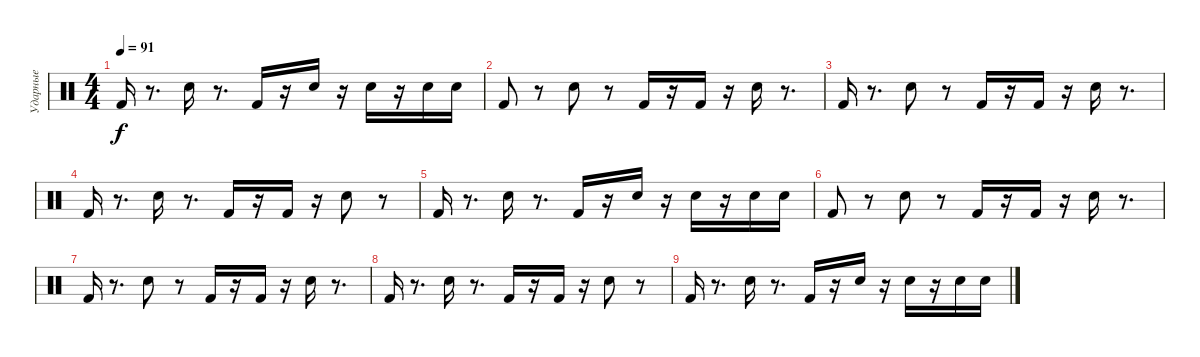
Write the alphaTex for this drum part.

\track ("Ударные" "Ударные") {instrument percussion}
\staff {score}
\articulation defaults
\ts (4 4)
\tempo 91
\clef neutral
\ks c "Kick (hit) 2".16{dy f}
r.8{d} "Electric Snare (hit)".16 r.8{d} "Kick (hit) 2".16 r.16 "Electric Snare (hit)".16 r.16 "Electric Snare (hit)".16 r.16 "Electric Snare (hit)".16 "Electric Snare (hit)".16 |
"Kick (hit) 2".8 r.8 "Electric Snare (hit)".8 r.8 "Kick (hit) 2".16 r.16 "Kick (hit) 2".16 r.16 "Electric Snare (hit)".16 r.8{d} |
"Kick (hit) 2".16 r.8{d} "Electric Snare (hit)".8 r.8 "Kick (hit) 2".16 r.16 "Kick (hit) 2".16 r.16 "Electric Snare (hit)".16 r.8{d} |
"Kick (hit) 2".16 r.8{d} "Electric Snare (hit)".16 r.8{d} "Kick (hit) 2".16 r.16 "Kick (hit) 2".16 r.16 "Electric Snare (hit)".8 r.8 |
"Kick (hit) 2".16 r.8{d} "Electric Snare (hit)".16 r.8{d} "Kick (hit) 2".16 r.16 "Electric Snare (hit)".16 r.16 "Electric Snare (hit)".16 r.16 "Electric Snare (hit)".16 "Electric Snare (hit)".16 |
"Kick (hit) 2".8 r.8 "Electric Snare (hit)".8 r.8 "Kick (hit) 2".16 r.16 "Kick (hit) 2".16 r.16 "Electric Snare (hit)".16 r.8{d} |
"Kick (hit) 2".16 r.8{d} "Electric Snare (hit)".8 r.8 "Kick (hit) 2".16 r.16 "Kick (hit) 2".16 r.16 "Electric Snare (hit)".16 r.8{d} |
"Kick (hit) 2".16 r.8{d} "Electric Snare (hit)".16 r.8{d} "Kick (hit) 2".16 r.16 "Kick (hit) 2".16 r.16 "Electric Snare (hit)".8 r.8 |
"Kick (hit) 2".16 r.8{d} "Electric Snare (hit)".16 r.8{d} "Kick (hit) 2".16 r.16 "Electric Snare (hit)".16 r.16 "Electric Snare (hit)".16 r.16 "Electric Snare (hit)".16 "Electric Snare (hit)".16
